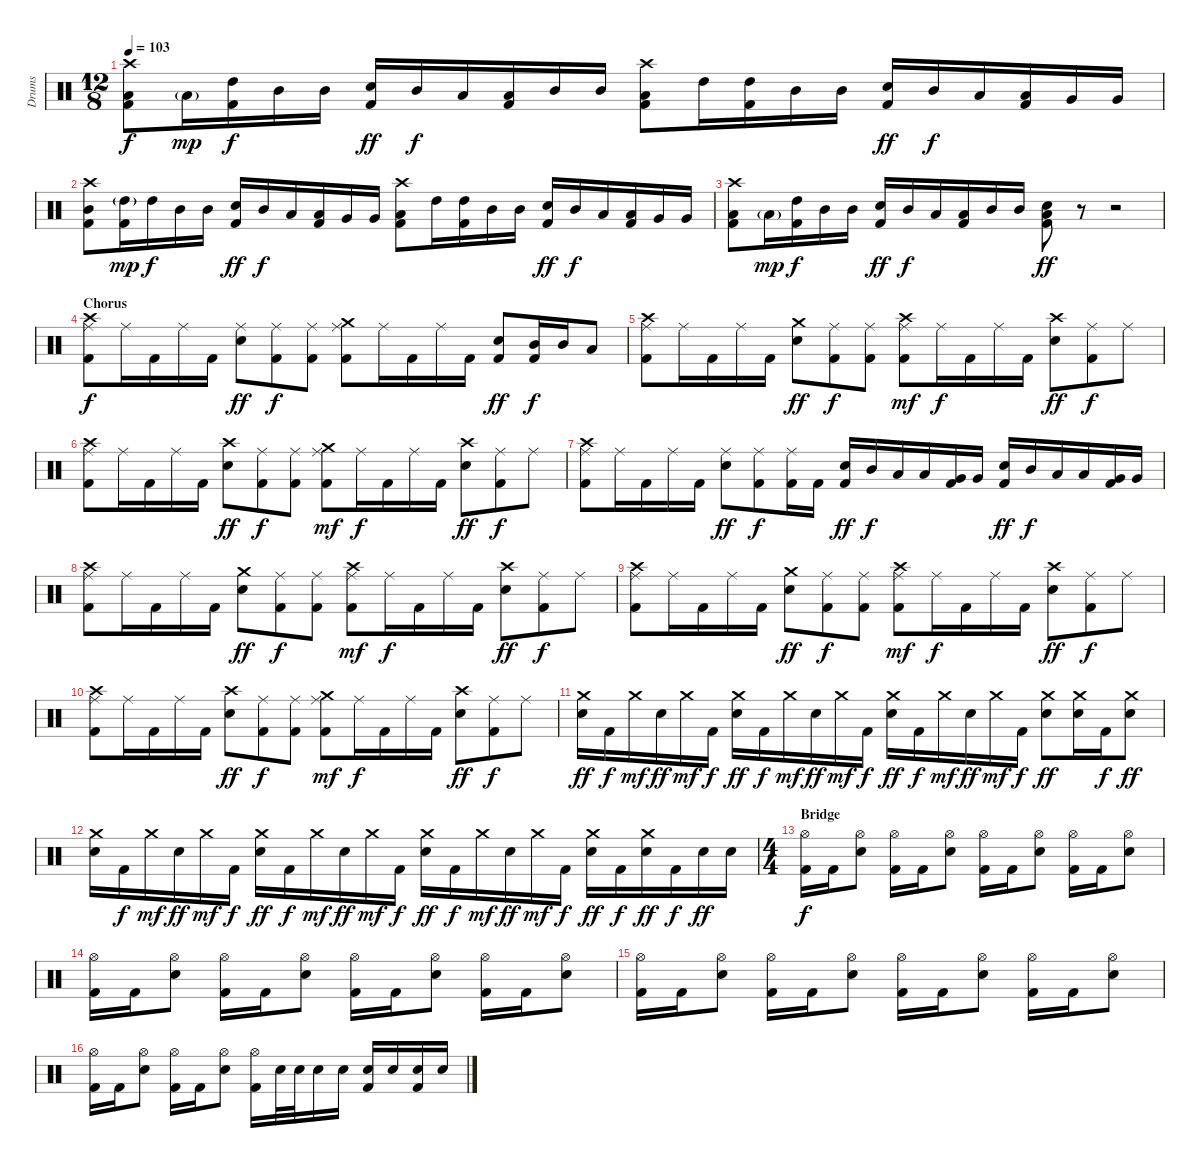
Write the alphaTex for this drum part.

\track ("Drums" "Drums") {instrument percussion}
\staff {score}
\articulation defaults
\ts (12 8)
\tempo 103
\clef neutral
\ks c
("Crash high (hit)" "Low Tom (hit)" "Kick (hit) 2").8{dy f} "Low Tom (hit)"{g}.16{dy mp} ("High Tom (hit)" "Kick (hit) 2").16{dy f} "Mid Tom (hit)".16 "Mid Tom (hit)".16 ("Electric Snare (hit)" "Kick (hit) 2").16{dy ff} "Mid Tom (hit)".16{dy f} "Low Tom (hit)".16 ("Low Tom (hit)" "Kick (hit) 2").16 "Mid Tom (hit)".16 "Mid Tom (hit)".16 ("Crash high (hit)" "Low Tom (hit)" "Kick (hit) 2").8 "High Tom (hit)".16 ("High Tom (hit)" "Kick (hit) 2").16 "Mid Tom (hit)".16 "Mid Tom (hit)".16 ("Electric Snare (hit)" "Kick (hit) 2").16{dy ff} "Mid Tom (hit)".16{dy f} "Low Tom (hit)".16 ("Low Tom (hit)" "Kick (hit) 2").16 "Very Low Tom (hit)".16 "Very Low Tom (hit)".16 |
("Crash high (hit)" "Mid Tom (hit)" "Kick (hit) 2").8 ("High Tom (hit)"{g} "Kick (hit) 2").16{dy mp} "High Tom (hit)".16{dy f} "Mid Tom (hit)".16 "Mid Tom (hit)".16 ("Electric Snare (hit)" "Kick (hit) 2").16{dy ff} "Mid Tom (hit)".16{dy f} "Low Tom (hit)".16 ("Low Tom (hit)" "Kick (hit) 2").16 "Very Low Tom (hit)".16 "Very Low Tom (hit)".16 ("Crash high (hit)" "Low Tom (hit)" "Kick (hit) 2").8 "High Tom (hit)".16 ("High Tom (hit)" "Kick (hit) 2").16 "Mid Tom (hit)".16 "Mid Tom (hit)".16 ("Electric Snare (hit)" "Kick (hit) 2").16{dy ff} "Mid Tom (hit)".16{dy f} "Low Tom (hit)".16 ("Low Tom (hit)" "Kick (hit) 2").16 "Very Low Tom (hit)".16 "Very Low Tom (hit)".16 |
("Crash high (hit)" "Low Tom (hit)" "Kick (hit) 2").8 "Low Tom (hit)"{g}.16{dy mp} ("High Tom (hit)" "Kick (hit) 2").16{dy f} "Mid Tom (hit)".16 "Mid Tom (hit)".16 ("Electric Snare (hit)" "Kick (hit) 2").16{dy ff} "Mid Tom (hit)".16{dy f} "Low Tom (hit)".16 ("Low Tom (hit)" "Kick (hit) 2").16 "Mid Tom (hit)".16 "Mid Tom (hit)".16 ("Low Tom (hit)" "Electric Snare (hit)" "Kick (hit) 2").8{dy ff} r.8 r.2 |
\section ("" "Chorus")
("Crash high (hit)" "Ride (middle)" "Kick (hit) 2").8{dy f} "Ride (middle)".16 "Kick (hit) 2".16 "Ride (middle)".16 "Kick (hit) 2".16 ("Ride (middle)" "Electric Snare (hit)").8{dy ff} ("Ride (middle)" "Kick (hit) 2").8{dy f} ("Ride (middle)" "Kick (hit) 2").8 ("Crash medium (hit)" "Ride (middle)" "Kick (hit) 2").8 "Ride (middle)".16 "Kick (hit) 2".16 "Ride (middle)".16 "Kick (hit) 2".16 ("Electric Snare (hit)" "Kick (hit) 2").8{dy ff} ("Mid Tom (hit)" "Kick (hit) 2").16{dy f} "Mid Tom (hit)".16 "Low Tom (hit)".8 |
("Crash high (hit)" "Ride (middle)" "Kick (hit) 2").8 "Ride (middle)".16 "Kick (hit) 2".16 "Ride (middle)".16 "Kick (hit) 2".16 ("Crash medium (hit)" "Electric Snare (hit)").8{dy ff} ("Ride (middle)" "Kick (hit) 2").8{dy f} ("Ride (middle)" "Kick (hit) 2").8 ("Crash high (hit)" "Ride (middle)" "Kick (hit) 2").8{dy mf} "Ride (middle)".16{dy f} "Kick (hit) 2".16 "Ride (middle)".16 "Kick (hit) 2".16 ("Crash high (hit)" "Electric Snare (hit)").8{dy ff} ("Ride (middle)" "Kick (hit) 2").8{dy f} "Ride (middle)".8 |
("Crash high (hit)" "Ride (middle)" "Kick (hit) 2").8 "Ride (middle)".16 "Kick (hit) 2".16 "Ride (middle)".16 "Kick (hit) 2".16 ("Crash high (hit)" "Electric Snare (hit)").8{dy ff} ("Ride (middle)" "Kick (hit) 2").8{dy f} ("Ride (middle)" "Kick (hit) 2").8 ("Crash medium (hit)" "Ride (middle)" "Kick (hit) 2").8{dy mf} "Ride (middle)".16{dy f} "Kick (hit) 2".16 "Ride (middle)".16 "Kick (hit) 2".16 ("Crash high (hit)" "Electric Snare (hit)").8{dy ff} ("Ride (middle)" "Kick (hit) 2").8{dy f} "Ride (middle)".8 |
("Crash high (hit)" "Ride (middle)" "Kick (hit) 2").8 "Ride (middle)".16 "Kick (hit) 2".16 "Ride (middle)".16 "Kick (hit) 2".16 ("Ride (middle)" "Electric Snare (hit)").8{dy ff} ("Ride (middle)" "Kick (hit) 2").8{dy f} ("Ride (middle)" "Kick (hit) 2").16 "Kick (hit) 2".16 ("Electric Snare (hit)" "Kick (hit) 2").16{dy ff} "Mid Tom (hit)".16{dy f} "Low Tom (hit)".16 "Low Tom (hit)".16 ("Very Low Tom (hit)" "Kick (hit) 2").16 "Very Low Tom (hit)".16 ("Electric Snare (hit)" "Kick (hit) 2").16{dy ff} "Mid Tom (hit)".16{dy f} "Low Tom (hit)".16 "Low Tom (hit)".16 ("Very Low Tom (hit)" "Kick (hit) 2").16 "Very Low Tom (hit)".16 |
("Crash high (hit)" "Ride (middle)" "Kick (hit) 2").8 "Ride (middle)".16 "Kick (hit) 2".16 "Ride (middle)".16 "Kick (hit) 2".16 ("Crash medium (hit)" "Electric Snare (hit)").8{dy ff} ("Ride (middle)" "Kick (hit) 2").8{dy f} ("Ride (middle)" "Kick (hit) 2").8 ("Crash high (hit)" "Ride (middle)" "Kick (hit) 2").8{dy mf} "Ride (middle)".16{dy f} "Kick (hit) 2".16 "Ride (middle)".16 "Kick (hit) 2".16 ("Crash high (hit)" "Electric Snare (hit)").8{dy ff} ("Ride (middle)" "Kick (hit) 2").8{dy f} "Ride (middle)".8 |
("Crash high (hit)" "Ride (middle)" "Kick (hit) 2").8 "Ride (middle)".16 "Kick (hit) 2".16 "Ride (middle)".16 "Kick (hit) 2".16 ("Crash medium (hit)" "Electric Snare (hit)").8{dy ff} ("Ride (middle)" "Kick (hit) 2").8{dy f} ("Ride (middle)" "Kick (hit) 2").8 ("Crash high (hit)" "Ride (middle)" "Kick (hit) 2").8{dy mf} "Ride (middle)".16{dy f} "Kick (hit) 2".16 "Ride (middle)".16 "Kick (hit) 2".16 ("Crash high (hit)" "Electric Snare (hit)").8{dy ff} ("Ride (middle)" "Kick (hit) 2").8{dy f} "Ride (middle)".8 |
("Crash high (hit)" "Ride (middle)" "Kick (hit) 2").8 "Ride (middle)".16 "Kick (hit) 2".16 "Ride (middle)".16 "Kick (hit) 2".16 ("Crash high (hit)" "Electric Snare (hit)").8{dy ff} ("Ride (middle)" "Kick (hit) 2").8{dy f} ("Ride (middle)" "Kick (hit) 2").8 ("Crash medium (hit)" "Ride (middle)" "Kick (hit) 2").8{dy mf} "Ride (middle)".16{dy f} "Kick (hit) 2".16 "Ride (middle)".16 "Kick (hit) 2".16 ("Crash high (hit)" "Electric Snare (hit)").8{dy ff} ("Ride (middle)" "Kick (hit) 2").8{dy f} "Ride (middle)".8 |
("Crash medium (hit)" "Electric Snare (hit)").16{dy ff} "Kick (hit) 2".16{dy f} "Crash medium (hit)".16{dy mf} "Electric Snare (hit)".16{dy ff} "Crash medium (hit)".16{dy mf} "Kick (hit) 2".16{dy f} ("Crash medium (hit)" "Electric Snare (hit)").16{dy ff} "Kick (hit) 2".16{dy f} "Crash medium (hit)".16{dy mf} "Electric Snare (hit)".16{dy ff} "Crash medium (hit)".16{dy mf} "Kick (hit) 2".16{dy f} ("Crash medium (hit)" "Electric Snare (hit)").16{dy ff} "Kick (hit) 2".16{dy f} "Crash medium (hit)".16{dy mf} "Electric Snare (hit)".16{dy ff} "Crash medium (hit)".16{dy mf} "Kick (hit) 2".16{dy f} ("Crash medium (hit)" "Electric Snare (hit)").8{dy ff} ("Crash medium (hit)" "Electric Snare (hit)").16 "Kick (hit) 2".16{dy f} ("Crash medium (hit)" "Electric Snare (hit)").8{dy ff} |
("Crash medium (hit)" "Electric Snare (hit)").16 "Kick (hit) 2".16{dy f} "Crash medium (hit)".16{dy mf} "Electric Snare (hit)".16{dy ff} "Crash medium (hit)".16{dy mf} "Kick (hit) 2".16{dy f} ("Crash medium (hit)" "Electric Snare (hit)").16{dy ff} "Kick (hit) 2".16{dy f} "Crash medium (hit)".16{dy mf} "Electric Snare (hit)".16{dy ff} "Crash medium (hit)".16{dy mf} "Kick (hit) 2".16{dy f} ("Crash medium (hit)" "Electric Snare (hit)").16{dy ff} "Kick (hit) 2".16{dy f} "Crash medium (hit)".16{dy mf} "Electric Snare (hit)".16{dy ff} "Crash medium (hit)".16{dy mf} "Kick (hit) 2".16{dy f} ("Crash medium (hit)" "Electric Snare (hit)").16{dy ff} "Kick (hit) 2".16{dy f} ("Crash medium (hit)" "Electric Snare (hit)").16{dy ff} "Kick (hit) 2".16{dy f} "Electric Snare (hit)".16{dy ff} "Electric Snare (hit)".16 |
\ts (4 4)
\section ("" "Bridge")
("Hi-Hat (open)" "Kick (hit) 2").16{dy f} "Kick (hit) 2".16 ("Hi-Hat (open)" "Electric Snare (hit)").8 ("Hi-Hat (open)" "Kick (hit) 2").16 "Kick (hit) 2".16 ("Hi-Hat (open)" "Electric Snare (hit)").8 ("Hi-Hat (open)" "Kick (hit) 2").16 "Kick (hit) 2".16 ("Hi-Hat (open)" "Electric Snare (hit)").8 ("Hi-Hat (open)" "Kick (hit) 2").16 "Kick (hit) 2".16 ("Hi-Hat (open)" "Electric Snare (hit)").8 |
("Hi-Hat (open)" "Kick (hit) 2").16 "Kick (hit) 2".16 ("Hi-Hat (open)" "Electric Snare (hit)").8 ("Hi-Hat (open)" "Kick (hit) 2").16 "Kick (hit) 2".16 ("Hi-Hat (open)" "Electric Snare (hit)").8 ("Hi-Hat (open)" "Kick (hit) 2").16 "Kick (hit) 2".16 ("Hi-Hat (open)" "Electric Snare (hit)").8 ("Hi-Hat (open)" "Kick (hit) 2").16 "Kick (hit) 2".16 ("Hi-Hat (open)" "Electric Snare (hit)").8 |
("Hi-Hat (open)" "Kick (hit) 2").16 "Kick (hit) 2".16 ("Hi-Hat (open)" "Electric Snare (hit)").8 ("Hi-Hat (open)" "Kick (hit) 2").16 "Kick (hit) 2".16 ("Hi-Hat (open)" "Electric Snare (hit)").8 ("Hi-Hat (open)" "Kick (hit) 2").16 "Kick (hit) 2".16 ("Hi-Hat (open)" "Electric Snare (hit)").8 ("Hi-Hat (open)" "Kick (hit) 2").16 "Kick (hit) 2".16 ("Hi-Hat (open)" "Electric Snare (hit)").8 |
("Hi-Hat (open)" "Kick (hit) 2").16 "Kick (hit) 2".16 ("Hi-Hat (open)" "Electric Snare (hit)").8 ("Hi-Hat (open)" "Kick (hit) 2").16 "Kick (hit) 2".16 ("Hi-Hat (open)" "Electric Snare (hit)").8 ("Hi-Hat (open)" "Kick (hit) 2").16 "Electric Snare (hit)".32 "Electric Snare (hit)".32 "Electric Snare (hit)".16 "Electric Snare (hit)".16 ("Electric Snare (hit)" "Kick (hit) 2").16 "Electric Snare (hit)".16 ("Electric Snare (hit)" "Kick (hit) 2").16 "Electric Snare (hit)".16
